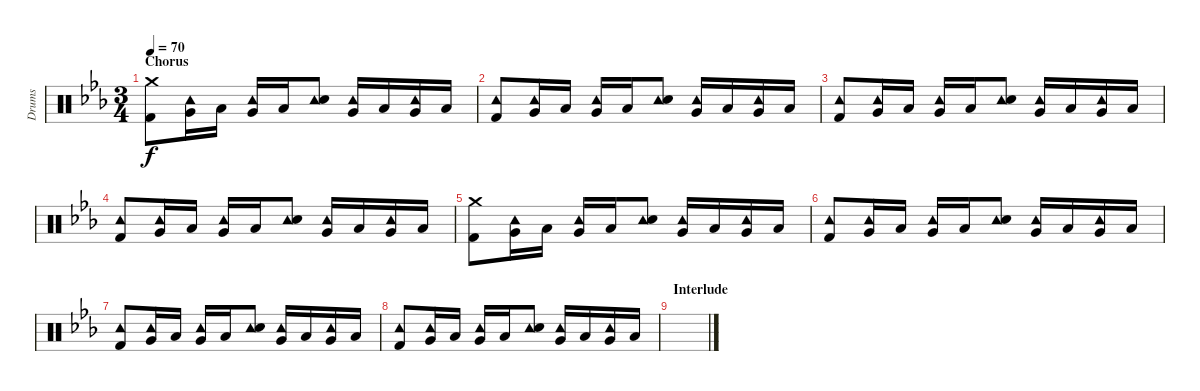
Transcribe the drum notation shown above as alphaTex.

\track ("Drums" "Drums") {instrument percussion}
\staff {score}
\articulation defaults
\ts (3 4)
\section ("" "Chorus")
\tempo 70
\clef neutral
\ks cminor
("Crash medium (hit)" "Kick (hit) 2").8{dy f} ("Tambourine (hit)" "Very Low Tom (hit)").16 "Low Floor Tom (hit)".16 ("Tambourine (hit)" "Very Low Tom (hit)").16 "Low Floor Tom (hit)".16 ("Tambourine (hit)" "Snare (hit) 2").8 ("Tambourine (hit)" "Very Low Tom (hit)").16 "Low Floor Tom (hit)".16 ("Tambourine (hit)" "Very Low Tom (hit)").16 "Low Floor Tom (hit)".16 |
("Tambourine (hit)" "Kick (hit) 2").8 ("Tambourine (hit)" "Very Low Tom (hit)").16 "Low Floor Tom (hit)".16 ("Tambourine (hit)" "Very Low Tom (hit)").16 "Low Floor Tom (hit)".16 ("Tambourine (hit)" "Snare (hit) 2").8 ("Tambourine (hit)" "Very Low Tom (hit)").16 "Low Floor Tom (hit)".16 ("Tambourine (hit)" "Very Low Tom (hit)").16 "Low Floor Tom (hit)".16 |
("Tambourine (hit)" "Kick (hit) 2").8 ("Tambourine (hit)" "Very Low Tom (hit)").16 "Low Floor Tom (hit)".16 ("Tambourine (hit)" "Very Low Tom (hit)").16 "Low Floor Tom (hit)".16 ("Tambourine (hit)" "Snare (hit) 2").8 ("Tambourine (hit)" "Very Low Tom (hit)").16 "Low Floor Tom (hit)".16 ("Tambourine (hit)" "Very Low Tom (hit)").16 "Low Floor Tom (hit)".16 |
("Tambourine (hit)" "Kick (hit) 2").8 ("Tambourine (hit)" "Very Low Tom (hit)").16 "Low Floor Tom (hit)".16 ("Tambourine (hit)" "Very Low Tom (hit)").16 "Low Floor Tom (hit)".16 ("Tambourine (hit)" "Snare (hit) 2").8 ("Tambourine (hit)" "Very Low Tom (hit)").16 "Low Floor Tom (hit)".16 ("Tambourine (hit)" "Very Low Tom (hit)").16 "Low Floor Tom (hit)".16 |
("Crash medium (hit)" "Kick (hit) 2").8 ("Tambourine (hit)" "Very Low Tom (hit)").16 "Low Floor Tom (hit)".16 ("Tambourine (hit)" "Very Low Tom (hit)").16 "Low Floor Tom (hit)".16 ("Tambourine (hit)" "Snare (hit) 2").8 ("Tambourine (hit)" "Very Low Tom (hit)").16 "Low Floor Tom (hit)".16 ("Tambourine (hit)" "Very Low Tom (hit)").16 "Low Floor Tom (hit)".16 |
("Tambourine (hit)" "Kick (hit) 2").8 ("Tambourine (hit)" "Very Low Tom (hit)").16 "Low Floor Tom (hit)".16 ("Tambourine (hit)" "Very Low Tom (hit)").16 "Low Floor Tom (hit)".16 ("Tambourine (hit)" "Snare (hit) 2").8 ("Tambourine (hit)" "Very Low Tom (hit)").16 "Low Floor Tom (hit)".16 ("Tambourine (hit)" "Very Low Tom (hit)").16 "Low Floor Tom (hit)".16 |
("Tambourine (hit)" "Kick (hit) 2").8 ("Tambourine (hit)" "Very Low Tom (hit)").16 "Low Floor Tom (hit)".16 ("Tambourine (hit)" "Very Low Tom (hit)").16 "Low Floor Tom (hit)".16 ("Tambourine (hit)" "Snare (hit) 2").8 ("Tambourine (hit)" "Very Low Tom (hit)").16 "Low Floor Tom (hit)".16 ("Tambourine (hit)" "Very Low Tom (hit)").16 "Low Floor Tom (hit)".16 |
("Tambourine (hit)" "Kick (hit) 2").8 ("Tambourine (hit)" "Very Low Tom (hit)").16 "Low Floor Tom (hit)".16 ("Tambourine (hit)" "Very Low Tom (hit)").16 "Low Floor Tom (hit)".16 ("Tambourine (hit)" "Snare (hit) 2").8 ("Tambourine (hit)" "Very Low Tom (hit)").16 "Low Floor Tom (hit)".16 ("Tambourine (hit)" "Very Low Tom (hit)").16 "Low Floor Tom (hit)".16 |
\section ("" "Interlude")
